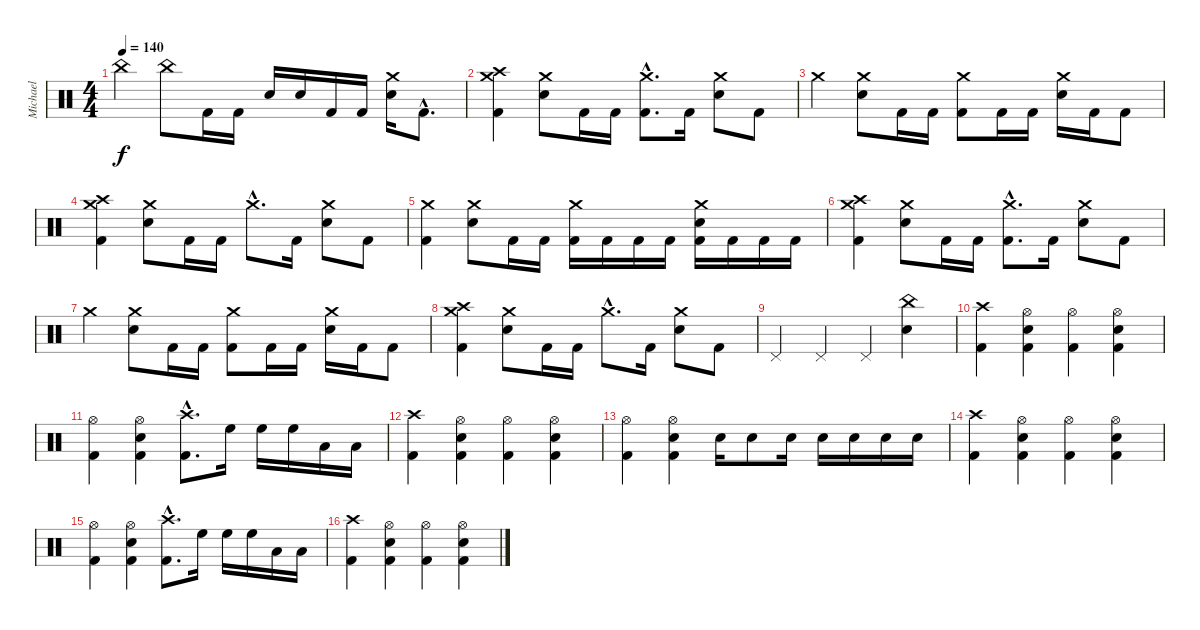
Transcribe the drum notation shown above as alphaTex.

\track ("Michael" "Michael") {instrument percussion}
\staff {score}
\articulation defaults
\ts (4 4)
\tempo 140
\clef neutral
\ks c "China (hit)".4{dy f} "China (hit)".8 "Kick (hit) 2".16 "Kick (hit) 2".16 "Electric Snare (hit)".16 "Electric Snare (hit)".16 "Kick (hit) 2".16 "Kick (hit) 2".16
("Crash medium (hit)" "Electric Snare (hit)").16 "Kick (hit) 2"{hac}.8{d} |
("Crash high (hit)" "Crash medium (hit)" "Kick (hit) 2").4 ("Crash medium (hit)" "Electric Snare (hit)").8 "Kick (hit) 2".16 "Kick (hit) 2".16 ("Crash medium (hit)"{hac} "Kick (hit) 2"{hac}).8{d} "Kick (hit) 2".16 ("Crash medium (hit)" "Electric Snare (hit)").8 "Kick (hit) 2".8 |
"Crash medium (hit)".4 ("Crash medium (hit)" "Electric Snare (hit)").8 "Kick (hit) 2".16 "Kick (hit) 2".16 ("Crash medium (hit)" "Kick (hit) 2").8 "Kick (hit) 2".16 "Kick (hit) 2".16 ("Crash medium (hit)" "Electric Snare (hit)").16 "Kick (hit) 2".16 "Kick (hit) 2".8 |
("Crash high (hit)" "Crash medium (hit)" "Kick (hit) 2").4 ("Crash medium (hit)" "Electric Snare (hit)").8 "Kick (hit) 2".16 "Kick (hit) 2".16 "Crash medium (hit)"{hac}.8{d} "Kick (hit) 2".16 ("Crash medium (hit)" "Electric Snare (hit)").8 "Kick (hit) 2".8 |
("Crash medium (hit)" "Kick (hit) 2").4 ("Crash medium (hit)" "Electric Snare (hit)").8 "Kick (hit) 2".16 "Kick (hit) 2".16 ("Crash medium (hit)" "Kick (hit) 2").16 "Kick (hit) 2".16 "Kick (hit) 2".16 "Kick (hit) 2".16 ("Crash medium (hit)" "Electric Snare (hit)" "Kick (hit) 2").16 "Kick (hit) 2".16 "Kick (hit) 2".16 "Kick (hit) 2".16 |
("Crash high (hit)" "Crash medium (hit)" "Kick (hit) 2").4 ("Crash medium (hit)" "Electric Snare (hit)").8 "Kick (hit) 2".16 "Kick (hit) 2".16 ("Crash medium (hit)"{hac} "Kick (hit) 2"{hac}).8{d} "Kick (hit) 2".16 ("Crash medium (hit)" "Electric Snare (hit)").8 "Kick (hit) 2".8 |
"Crash medium (hit)".4 ("Crash medium (hit)" "Electric Snare (hit)").8 "Kick (hit) 2".16 "Kick (hit) 2".16 ("Crash medium (hit)" "Kick (hit) 2").8 "Kick (hit) 2".16 "Kick (hit) 2".16 ("Crash medium (hit)" "Electric Snare (hit)").16 "Kick (hit) 2".16 "Kick (hit) 2".8 |
("Crash high (hit)" "Crash medium (hit)" "Kick (hit) 2").4 ("Crash medium (hit)" "Electric Snare (hit)").8 "Kick (hit) 2".16 "Kick (hit) 2".16 "Crash medium (hit)"{hac}.8{d} "Kick (hit) 2".16 ("Crash medium (hit)" "Electric Snare (hit)").8 "Kick (hit) 2".8 |
"Pedal Hi-Hat (hit)".4 "Pedal Hi-Hat (hit)".4 "Pedal Hi-Hat (hit)".4 ("China (hit)" "Electric Snare (hit)").4 |
("Kick (hit) 2" "Crash high (hit)").4 ("Kick (hit) 2" "Hi-Hat (open)" "Electric Snare (hit)").4 ("Kick (hit) 2" "Hi-Hat (open)").4 ("Kick (hit) 2" "Hi-Hat (open)" "Electric Snare (hit)").4 |
("Kick (hit) 2" "Hi-Hat (open)").4 ("Kick (hit) 2" "Hi-Hat (open)" "Electric Snare (hit)").4 ("Crash high (hit)"{hac} "Kick (hit) 2"{hac}).8{d} "High Floor Tom (hit)".16 "High Floor Tom (hit)".16 "High Floor Tom (hit)".16 "Low Tom (hit)".16 "Low Tom (hit)".16 |
("Kick (hit) 2" "Crash high (hit)").4 ("Kick (hit) 2" "Hi-Hat (open)" "Electric Snare (hit)").4 ("Kick (hit) 2" "Hi-Hat (open)").4 ("Kick (hit) 2" "Hi-Hat (open)" "Electric Snare (hit)").4 |
("Kick (hit) 2" "Hi-Hat (open)").4 ("Kick (hit) 2" "Hi-Hat (open)" "Electric Snare (hit)").4 "Electric Snare (hit)".16 "Electric Snare (hit)".8 "Electric Snare (hit)".16 "Electric Snare (hit)".16 "Electric Snare (hit)".16 "Electric Snare (hit)".16 "Electric Snare (hit)".16 |
("Kick (hit) 2" "Crash high (hit)").4 ("Kick (hit) 2" "Hi-Hat (open)" "Electric Snare (hit)").4 ("Kick (hit) 2" "Hi-Hat (open)").4 ("Kick (hit) 2" "Hi-Hat (open)" "Electric Snare (hit)").4 |
("Kick (hit) 2" "Hi-Hat (open)").4 ("Kick (hit) 2" "Hi-Hat (open)" "Electric Snare (hit)").4 ("Crash high (hit)"{hac} "Kick (hit) 2"{hac}).8{d} "High Floor Tom (hit)".16 "High Floor Tom (hit)".16 "High Floor Tom (hit)".16 "Low Tom (hit)".16 "Low Tom (hit)".16 |
("Kick (hit) 2" "Crash high (hit)").4 ("Kick (hit) 2" "Hi-Hat (open)" "Electric Snare (hit)").4 ("Kick (hit) 2" "Hi-Hat (open)").4 ("Kick (hit) 2" "Hi-Hat (open)" "Electric Snare (hit)").4
